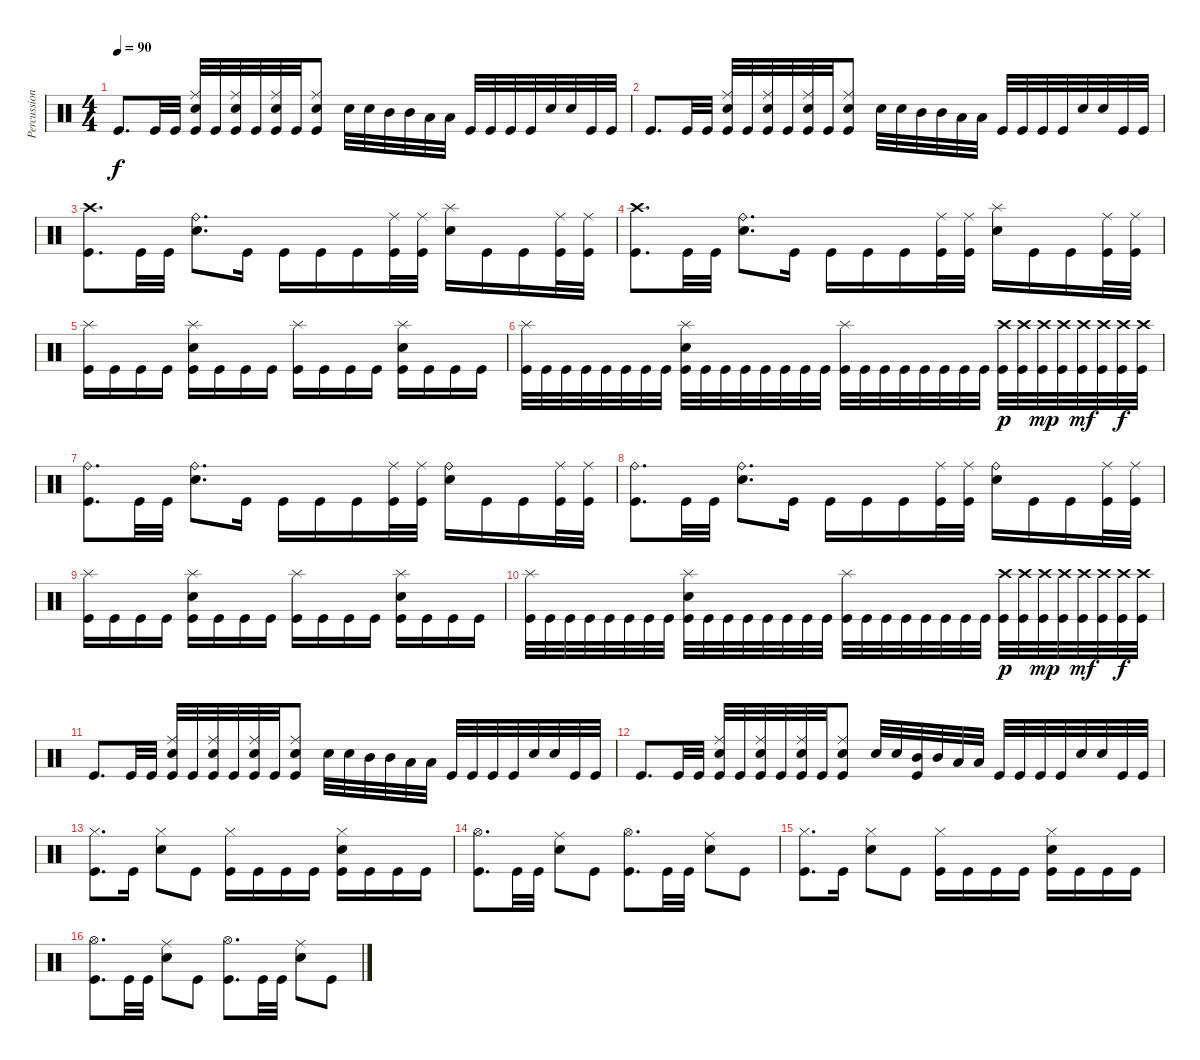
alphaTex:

\track ("Percussion" "Percussion") {instrument percussion}
\staff {score}
\articulation defaults
\ts (4 4)
\tempo 90
\clef neutral
\ks c "Kick (hit)".8{d dy f} "Kick (hit)".32 "Kick (hit)".32
("Ride (middle)" "Electric Snare (hit)" "Kick (hit)").32 "Kick (hit)".32 ("Ride (middle)" "Electric Snare (hit)" "Kick (hit)").32 "Kick (hit)".32 ("Ride (middle)" "Electric Snare (hit)" "Kick (hit)").32 "Kick (hit)".32 ("Ride (middle)" "Electric Snare (hit)" "Kick (hit)").8 "Electric Snare (hit)".32 "Electric Snare (hit)".32 "Mid Tom (hit)".32 "Mid Tom (hit)".32 "Low Tom (hit)".32 "Low Tom (hit)".32 "Kick (hit)".32 "Kick (hit)".32 "Kick (hit)".32 "Kick (hit)".32 "Electric Snare (hit)".32 "Electric Snare (hit)".32 "Kick (hit)".32 "Kick (hit)".32 |
"Kick (hit)".8{d} "Kick (hit)".32 "Kick (hit)".32 ("Ride (middle)" "Electric Snare (hit)" "Kick (hit)").32 "Kick (hit)".32 ("Ride (middle)" "Electric Snare (hit)" "Kick (hit)").32 "Kick (hit)".32 ("Ride (middle)" "Electric Snare (hit)" "Kick (hit)").32 "Kick (hit)".32 ("Ride (middle)" "Electric Snare (hit)" "Kick (hit)").8 "Electric Snare (hit)".32 "Electric Snare (hit)".32 "Mid Tom (hit)".32 "Mid Tom (hit)".32 "Low Tom (hit)".32 "Low Tom (hit)".32 "Kick (hit)".32 "Kick (hit)".32 "Kick (hit)".32 "Kick (hit)".32 "Electric Snare (hit)".32 "Electric Snare (hit)".32 "Kick (hit)".32 "Kick (hit)".32 |
("Crash high (hit)" "Kick (hit)").8{d} "Kick (hit)".32 "Kick (hit)".32 ("Ride (bell)" "Electric Snare (hit)").8{d} "Kick (hit)".16 "Kick (hit)".16 "Kick (hit)".16 "Kick (hit)".16 ("Ride (middle)" "Kick (hit)").32 ("Ride (middle)" "Kick (hit)").32 ("Splash (hit)" "Electric Snare (hit)").16 "Kick (hit)".16 "Kick (hit)".16 ("Ride (middle)" "Kick (hit)").32 ("Ride (middle)" "Kick (hit)").32 |
("Crash high (hit)" "Kick (hit)").8{d} "Kick (hit)".32 "Kick (hit)".32 ("Ride (bell)" "Electric Snare (hit)").8{d} "Kick (hit)".16 "Kick (hit)".16 "Kick (hit)".16 "Kick (hit)".16 ("Ride (middle)" "Kick (hit)").32 ("Ride (middle)" "Kick (hit)").32 ("Splash (hit)" "Electric Snare (hit)").16 "Kick (hit)".16 "Kick (hit)".16 ("Ride (middle)" "Kick (hit)").32 ("Ride (middle)" "Kick (hit)").32 |
("Splash (hit)" "Kick (hit)").16 "Kick (hit)".16 "Kick (hit)".16 "Kick (hit)".16 ("Splash (hit)" "Electric Snare (hit)" "Kick (hit)").16 "Kick (hit)".16 "Kick (hit)".16 "Kick (hit)".16 ("Splash (hit)" "Kick (hit)").16 "Kick (hit)".16 "Kick (hit)".16 "Kick (hit)".16 ("Splash (hit)" "Electric Snare (hit)" "Kick (hit)").16 "Kick (hit)".16 "Kick (hit)".16 "Kick (hit)".16 |
("Splash (hit)" "Kick (hit)").32 "Kick (hit)".32 "Kick (hit)".32 "Kick (hit)".32 "Kick (hit)".32 "Kick (hit)".32 "Kick (hit)".32 "Kick (hit)".32 ("Splash (hit)" "Electric Snare (hit)" "Kick (hit)").32 "Kick (hit)".32 "Kick (hit)".32 "Kick (hit)".32 "Kick (hit)".32 "Kick (hit)".32 "Kick (hit)".32 "Kick (hit)".32 ("Splash (hit)" "Kick (hit)").32 "Kick (hit)".32 "Kick (hit)".32 "Kick (hit)".32 "Kick (hit)".32 "Kick (hit)".32 "Kick (hit)".32 "Kick (hit)".32 ("Crash high (hit)" "Kick (hit)").32{dy p} ("Crash high (hit)" "Kick (hit)").32 ("Crash high (hit)" "Kick (hit)").32{dy mp} ("Crash high (hit)" "Kick (hit)").32 ("Crash high (hit)" "Kick (hit)").32{dy mf} ("Crash high (hit)" "Kick (hit)").32 ("Crash high (hit)" "Kick (hit)").32{dy f} ("Crash high (hit)" "Kick (hit)").32 |
("Ride (bell)" "Kick (hit)").8{d} "Kick (hit)".32 "Kick (hit)".32 ("Ride (bell)" "Electric Snare (hit)").8{d} "Kick (hit)".16 "Kick (hit)".16 "Kick (hit)".16 "Kick (hit)".16 ("Ride (middle)" "Kick (hit)").32 ("Ride (middle)" "Kick (hit)").32 ("Ride (bell)" "Electric Snare (hit)").16 "Kick (hit)".16 "Kick (hit)".16 ("Ride (middle)" "Kick (hit)").32 ("Ride (middle)" "Kick (hit)").32 |
("Ride (bell)" "Kick (hit)").8{d} "Kick (hit)".32 "Kick (hit)".32 ("Ride (bell)" "Electric Snare (hit)").8{d} "Kick (hit)".16 "Kick (hit)".16 "Kick (hit)".16 "Kick (hit)".16 ("Ride (middle)" "Kick (hit)").32 ("Ride (middle)" "Kick (hit)").32 ("Ride (bell)" "Electric Snare (hit)").16 "Kick (hit)".16 "Kick (hit)".16 ("Ride (middle)" "Kick (hit)").32 ("Ride (middle)" "Kick (hit)").32 |
("Splash (hit)" "Kick (hit)").16 "Kick (hit)".16 "Kick (hit)".16 "Kick (hit)".16 ("Splash (hit)" "Electric Snare (hit)" "Kick (hit)").16 "Kick (hit)".16 "Kick (hit)".16 "Kick (hit)".16 ("Splash (hit)" "Kick (hit)").16 "Kick (hit)".16 "Kick (hit)".16 "Kick (hit)".16 ("Splash (hit)" "Electric Snare (hit)" "Kick (hit)").16 "Kick (hit)".16 "Kick (hit)".16 "Kick (hit)".16 |
("Splash (hit)" "Kick (hit)").32 "Kick (hit)".32 "Kick (hit)".32 "Kick (hit)".32 "Kick (hit)".32 "Kick (hit)".32 "Kick (hit)".32 "Kick (hit)".32 ("Splash (hit)" "Electric Snare (hit)" "Kick (hit)").32 "Kick (hit)".32 "Kick (hit)".32 "Kick (hit)".32 "Kick (hit)".32 "Kick (hit)".32 "Kick (hit)".32 "Kick (hit)".32 ("Splash (hit)" "Kick (hit)").32 "Kick (hit)".32 "Kick (hit)".32 "Kick (hit)".32 "Kick (hit)".32 "Kick (hit)".32 "Kick (hit)".32 "Kick (hit)".32 ("Crash high (hit)" "Kick (hit)").32{dy p} ("Crash high (hit)" "Kick (hit)").32 ("Crash high (hit)" "Kick (hit)").32{dy mp} ("Crash high (hit)" "Kick (hit)").32 ("Crash high (hit)" "Kick (hit)").32{dy mf} ("Crash high (hit)" "Kick (hit)").32 ("Crash high (hit)" "Kick (hit)").32{dy f} ("Crash high (hit)" "Kick (hit)").32 |
"Kick (hit)".8{d} "Kick (hit)".32 "Kick (hit)".32 ("Ride (middle)" "Electric Snare (hit)" "Kick (hit)").32 "Kick (hit)".32 ("Ride (middle)" "Electric Snare (hit)" "Kick (hit)").32 "Kick (hit)".32 ("Ride (middle)" "Electric Snare (hit)" "Kick (hit)").32 "Kick (hit)".32 ("Ride (middle)" "Electric Snare (hit)" "Kick (hit)").8 "Electric Snare (hit)".32 "Electric Snare (hit)".32 "Mid Tom (hit)".32 "Mid Tom (hit)".32 "Low Tom (hit)".32 "Low Tom (hit)".32 "Kick (hit)".32 "Kick (hit)".32 "Kick (hit)".32 "Kick (hit)".32 "Electric Snare (hit)".32 "Electric Snare (hit)".32 "Kick (hit)".32 "Kick (hit)".32 |
"Kick (hit)".8{d} "Kick (hit)".32 "Kick (hit)".32 ("Ride (middle)" "Electric Snare (hit)" "Kick (hit)").32 "Kick (hit)".32 ("Ride (middle)" "Electric Snare (hit)" "Kick (hit)").32 "Kick (hit)".32 ("Ride (middle)" "Electric Snare (hit)" "Kick (hit)").32 "Kick (hit)".32 ("Ride (middle)" "Electric Snare (hit)" "Kick (hit)").8 "Electric Snare (hit)".32 "Electric Snare (hit)".32 ("Mid Tom (hit)" "Kick (hit)").32 "Mid Tom (hit)".32 "Low Tom (hit)".32 "Low Tom (hit)".32 "Kick (hit)".32 "Kick (hit)".32 "Kick (hit)".32 "Kick (hit)".32 "Electric Snare (hit)".32 "Electric Snare (hit)".32 "Kick (hit)".32 "Kick (hit)".32 |
("Hi-Hat (closed)" "Kick (hit)").8{d} "Kick (hit)".16 ("Hi-Hat (closed)" "Electric Snare (hit)").8 "Kick (hit)".8 ("Hi-Hat (closed)" "Kick (hit)").16 "Kick (hit)".16 "Kick (hit)".16 "Kick (hit)".16 ("Hi-Hat (closed)" "Electric Snare (hit)" "Kick (hit)").16 "Kick (hit)".16 "Kick (hit)".16 "Kick (hit)".16 |
("Hi-Hat (open)" "Kick (hit)").8{d} "Kick (hit)".32 "Kick (hit)".32 ("Ride (middle)" "Electric Snare (hit)").8 "Kick (hit)".8 ("Hi-Hat (open)" "Kick (hit)").8{d} "Kick (hit)".32 "Kick (hit)".32 ("Ride (middle)" "Electric Snare (hit)").8 "Kick (hit)".8 |
("Hi-Hat (closed)" "Kick (hit)").8{d} "Kick (hit)".16 ("Hi-Hat (closed)" "Electric Snare (hit)").8 "Kick (hit)".8 ("Hi-Hat (closed)" "Kick (hit)").16 "Kick (hit)".16 "Kick (hit)".16 "Kick (hit)".16 ("Hi-Hat (closed)" "Electric Snare (hit)" "Kick (hit)").16 "Kick (hit)".16 "Kick (hit)".16 "Kick (hit)".16 |
("Hi-Hat (open)" "Kick (hit)").8{d} "Kick (hit)".32 "Kick (hit)".32 ("Ride (middle)" "Electric Snare (hit)").8 "Kick (hit)".8 ("Hi-Hat (open)" "Kick (hit)").8{d} "Kick (hit)".32 "Kick (hit)".32 ("Ride (middle)" "Electric Snare (hit)").8 "Kick (hit)".8
